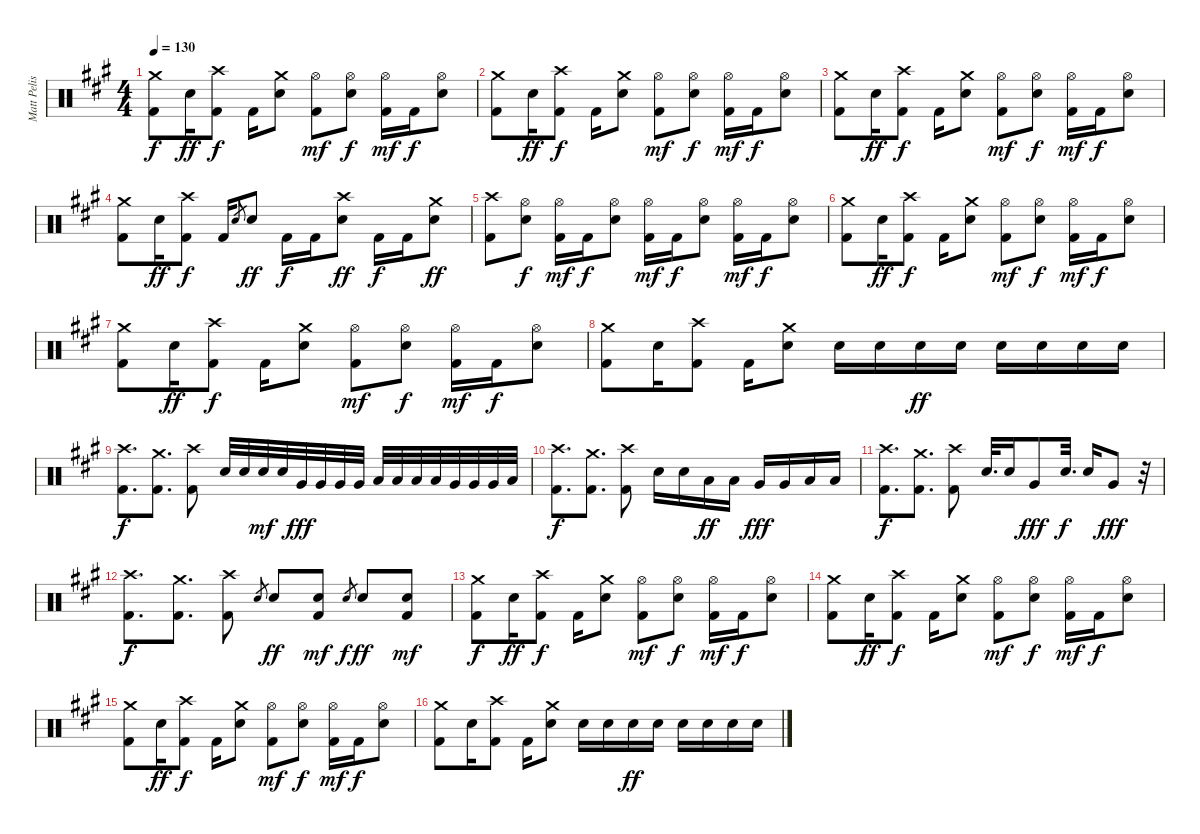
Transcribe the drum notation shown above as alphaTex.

\track ("Matt Pelissier" "Matt Pelis") {instrument percussion}
\staff {score}
\articulation defaults
\ts (4 4)
\tempo 130
\clef neutral
\ks a
("Crash medium (hit)" "Kick (hit) 2").8{dy f} "Snare (hit) 2".16{dy ff} ("Crash high (hit)" "Kick (hit) 2").8{dy f} "Kick (hit) 2".16 ("Crash medium (hit)" "Snare (hit) 2").8 ("Hi-Hat (open)" "Kick (hit) 2").8{dy mf} ("Hi-Hat (open)" "Snare (hit) 2").8{dy f} ("Hi-Hat (open)" "Kick (hit) 2").16{dy mf} "Kick (hit) 2".16{dy f} ("Hi-Hat (open)" "Snare (hit) 2").8 |
("Crash medium (hit)" "Kick (hit) 2").8 "Snare (hit) 2".16{dy ff} ("Crash high (hit)" "Kick (hit) 2").8{dy f} "Kick (hit) 2".16 ("Crash medium (hit)" "Snare (hit) 2").8 ("Hi-Hat (open)" "Kick (hit) 2").8{dy mf} ("Hi-Hat (open)" "Snare (hit) 2").8{dy f} ("Hi-Hat (open)" "Kick (hit) 2").16{dy mf} "Kick (hit) 2".16{dy f} ("Hi-Hat (open)" "Snare (hit) 2").8 |
("Crash medium (hit)" "Kick (hit) 2").8 "Snare (hit) 2".16{dy ff} ("Crash high (hit)" "Kick (hit) 2").8{dy f} "Kick (hit) 2".16 ("Crash medium (hit)" "Snare (hit) 2").8 ("Hi-Hat (open)" "Kick (hit) 2").8{dy mf} ("Hi-Hat (open)" "Snare (hit) 2").8{dy f} ("Hi-Hat (open)" "Kick (hit) 2").16{dy mf} "Kick (hit) 2".16{dy f} ("Hi-Hat (open)" "Snare (hit) 2").8 |
("Crash medium (hit)" "Kick (hit) 2").8 "Snare (hit) 2".16{dy ff} ("Crash high (hit)" "Kick (hit) 2").8{dy f} "Kick (hit) 2".16 "Snare (hit) 2".8{gr} "Snare (hit) 2".8{dy ff} "Kick (hit) 2".16{dy f} "Kick (hit) 2".16 ("Crash high (hit)" "Snare (hit) 2").8{dy ff} "Kick (hit) 2".16{dy f} "Kick (hit) 2".16 ("Crash medium (hit)" "Snare (hit) 2").8{dy ff} |
("Crash high (hit)" "Kick (hit) 2").8 ("Hi-Hat (open)" "Snare (hit) 2").8{dy f} ("Hi-Hat (open)" "Kick (hit) 2").16{dy mf} "Kick (hit) 2".16{dy f} ("Hi-Hat (open)" "Snare (hit) 2").8 ("Hi-Hat (open)" "Kick (hit) 2").16{dy mf} "Kick (hit) 2".16{dy f} ("Hi-Hat (open)" "Snare (hit) 2").8 ("Hi-Hat (open)" "Kick (hit) 2").16{dy mf} "Kick (hit) 2".16{dy f} ("Hi-Hat (open)" "Snare (hit) 2").8 |
("Crash medium (hit)" "Kick (hit) 2").8 "Snare (hit) 2".16{dy ff} ("Crash high (hit)" "Kick (hit) 2").8{dy f} "Kick (hit) 2".16 ("Crash medium (hit)" "Snare (hit) 2").8 ("Hi-Hat (open)" "Kick (hit) 2").8{dy mf} ("Hi-Hat (open)" "Snare (hit) 2").8{dy f} ("Hi-Hat (open)" "Kick (hit) 2").16{dy mf} "Kick (hit) 2".16{dy f} ("Hi-Hat (open)" "Snare (hit) 2").8 |
("Crash medium (hit)" "Kick (hit) 2").8 "Snare (hit) 2".16{dy ff} ("Crash high (hit)" "Kick (hit) 2").8{dy f} "Kick (hit) 2".16 ("Crash medium (hit)" "Snare (hit) 2").8 ("Hi-Hat (open)" "Kick (hit) 2").8{dy mf} ("Hi-Hat (open)" "Snare (hit) 2").8{dy f} ("Hi-Hat (open)" "Kick (hit) 2").16{dy mf} "Kick (hit) 2".16{dy f} ("Hi-Hat (open)" "Snare (hit) 2").8 |
("Crash medium (hit)" "Kick (hit) 2").8 "Snare (hit) 2".16 ("Crash high (hit)" "Kick (hit) 2").8 "Kick (hit) 2".16 ("Crash medium (hit)" "Snare (hit) 2").8 "Snare (hit) 2".16 "Snare (hit) 2".16 "Snare (hit) 2".16{dy ff} "Snare (hit) 2".16 "Snare (hit) 2".16 "Snare (hit) 2".16 "Snare (hit) 2".16 "Snare (hit) 2".16 |
("Crash high (hit)" "Kick (hit) 2").8{d dy f} ("Crash medium (hit)" "Kick (hit) 2").8{d} ("Crash high (hit)" "Kick (hit) 2").8 "Snare (hit) 2".32 "Snare (hit) 2".32 "Snare (hit) 2".32{dy mf} "Snare (hit) 2".32 "Very Low Tom (hit)".32{dy fff} "Very Low Tom (hit)".32 "Very Low Tom (hit)".32 "Very Low Tom (hit)".32 "Low Floor Tom (hit)".32 "Low Floor Tom (hit)".32 "Low Floor Tom (hit)".32 "Low Floor Tom (hit)".32 "Very Low Tom (hit)".32 "Very Low Tom (hit)".32 "Very Low Tom (hit)".32 "Low Floor Tom (hit)".32 |
("Crash high (hit)" "Kick (hit) 2").8{d dy f} ("Crash medium (hit)" "Kick (hit) 2").8{d} ("Crash high (hit)" "Kick (hit) 2").8 "Snare (hit) 2".16 "Snare (hit) 2".16 "Low Tom (hit)".16{dy ff} "Low Tom (hit)".16 "Very Low Tom (hit)".16{dy fff} "Very Low Tom (hit)".16 "Low Floor Tom (hit)".16 "Low Floor Tom (hit)".16 |
("Crash high (hit)" "Kick (hit) 2").8{d dy f} ("Crash medium (hit)" "Kick (hit) 2").8{d} ("Crash high (hit)" "Kick (hit) 2").8 "Snare (hit) 2".32{d} "Snare (hit) 2".16 "Very Low Tom (hit)".8{dy fff} "Snare (hit) 2".32{d dy f} "Snare (hit) 2".16 "Very Low Tom (hit)".8{dy fff} r.32 |
("Crash high (hit)" "Kick (hit) 2").8{d dy f} ("Crash medium (hit)" "Kick (hit) 2").8{d} ("Crash high (hit)" "Kick (hit) 2").8 "Snare (hit) 2".8{gr} "Snare (hit) 2".8{dy ff} ("Snare (hit) 2" "Kick (hit) 2").8{dy mf} "Snare (hit) 2".8{gr dy f} "Snare (hit) 2".8{dy ff} ("Snare (hit) 2" "Kick (hit) 2").8{dy mf} |
("Crash medium (hit)" "Kick (hit) 2").8{dy f} "Snare (hit) 2".16{dy ff} ("Crash high (hit)" "Kick (hit) 2").8{dy f} "Kick (hit) 2".16 ("Crash medium (hit)" "Snare (hit) 2").8 ("Hi-Hat (open)" "Kick (hit) 2").8{dy mf} ("Hi-Hat (open)" "Snare (hit) 2").8{dy f} ("Hi-Hat (open)" "Kick (hit) 2").16{dy mf} "Kick (hit) 2".16{dy f} ("Hi-Hat (open)" "Snare (hit) 2").8 |
("Crash medium (hit)" "Kick (hit) 2").8 "Snare (hit) 2".16{dy ff} ("Crash high (hit)" "Kick (hit) 2").8{dy f} "Kick (hit) 2".16 ("Crash medium (hit)" "Snare (hit) 2").8 ("Hi-Hat (open)" "Kick (hit) 2").8{dy mf} ("Hi-Hat (open)" "Snare (hit) 2").8{dy f} ("Hi-Hat (open)" "Kick (hit) 2").16{dy mf} "Kick (hit) 2".16{dy f} ("Hi-Hat (open)" "Snare (hit) 2").8 |
("Crash medium (hit)" "Kick (hit) 2").8 "Snare (hit) 2".16{dy ff} ("Crash high (hit)" "Kick (hit) 2").8{dy f} "Kick (hit) 2".16 ("Crash medium (hit)" "Snare (hit) 2").8 ("Hi-Hat (open)" "Kick (hit) 2").8{dy mf} ("Hi-Hat (open)" "Snare (hit) 2").8{dy f} ("Hi-Hat (open)" "Kick (hit) 2").16{dy mf} "Kick (hit) 2".16{dy f} ("Hi-Hat (open)" "Snare (hit) 2").8 |
("Crash medium (hit)" "Kick (hit) 2").8 "Snare (hit) 2".16 ("Crash high (hit)" "Kick (hit) 2").8 "Kick (hit) 2".16 ("Crash medium (hit)" "Snare (hit) 2").8 "Snare (hit) 2".16 "Snare (hit) 2".16 "Snare (hit) 2".16{dy ff} "Snare (hit) 2".16 "Snare (hit) 2".16 "Snare (hit) 2".16 "Snare (hit) 2".16 "Snare (hit) 2".16
